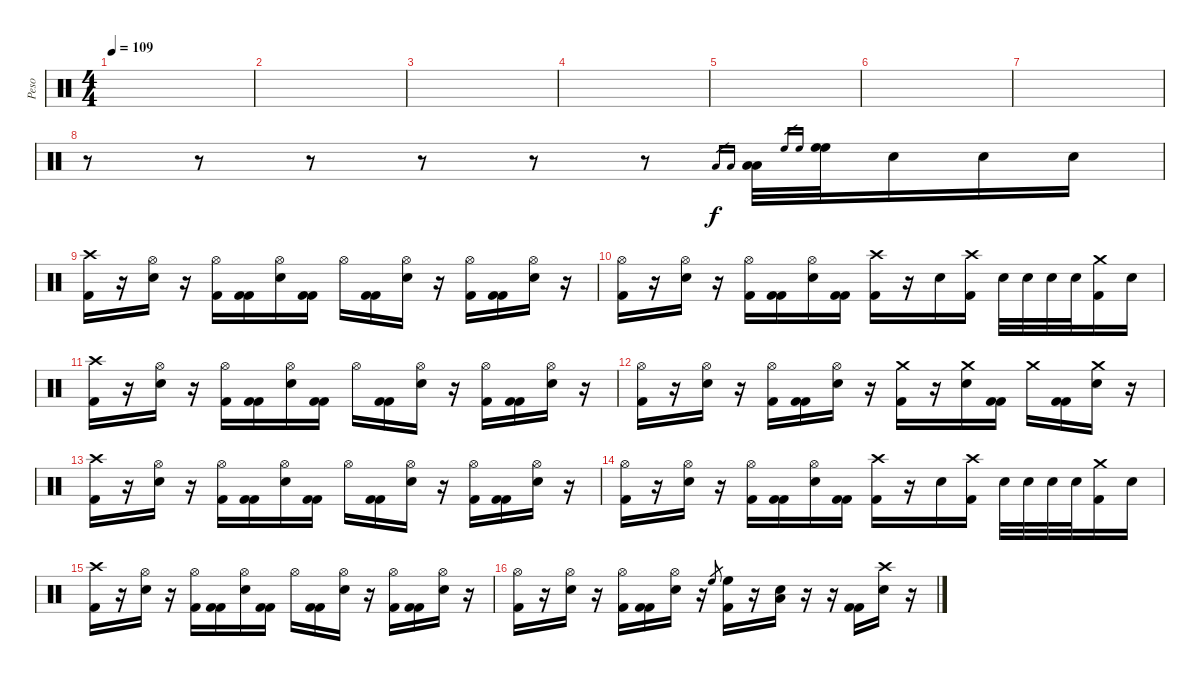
\track ("Peso" "Peso") {instrument percussion}
\staff {score}
\articulation defaults
\ts (4 4)
\tempo 109
\clef neutral
\ks c
|
|
|
|
|
|
|
r.8 r.8 r.8 r.8 r.8 r.8 "Low Floor Tom (hit)".16{gr} "Low Floor Tom (hit)".16{gr} ("Low Floor Tom (hit)" "Low Floor Tom (hit)").32 "High Floor Tom (hit)".16{gr} "High Floor Tom (hit)".16{gr} ("High Floor Tom (hit)" "High Floor Tom (hit)").32 "Snare (hit) 2".16 "Snare (hit) 2".16 "Snare (hit) 2".16 |
("Crash high (hit)" "Kick (hit) 2").16 r.16 ("Hi-Hat (open)" "Snare (hit) 2").16 r.16 ("Hi-Hat (open)" "Kick (hit) 2").16 ("Kick (hit) 2" "Kick (hit) 2").16 ("Hi-Hat (open)" "Snare (hit) 2").16 ("Kick (hit) 2" "Kick (hit) 2").16 "Hi-Hat (open)".16 ("Kick (hit) 2" "Kick (hit) 2").16 ("Hi-Hat (open)" "Snare (hit) 2").16 r.16 ("Hi-Hat (open)" "Kick (hit) 2").16 ("Kick (hit) 2" "Kick (hit) 2").16 ("Hi-Hat (open)" "Snare (hit) 2").16 r.16 |
("Hi-Hat (open)" "Kick (hit) 2").16 r.16 ("Hi-Hat (open)" "Snare (hit) 2").16 r.16 ("Hi-Hat (open)" "Kick (hit) 2").16 ("Kick (hit) 2" "Kick (hit) 2").16 ("Hi-Hat (open)" "Snare (hit) 2").16 ("Kick (hit) 2" "Kick (hit) 2").16 ("Crash high (hit)" "Kick (hit) 2").16 r.16 "Snare (hit) 2".16 ("Crash high (hit)" "Kick (hit) 2").16 "Snare (hit) 2".32 "Snare (hit) 2".32 "Snare (hit) 2".32 "Snare (hit) 2".32 ("Crash medium (hit)" "Kick (hit) 2").16 "Snare (hit) 2".16 |
("Crash high (hit)" "Kick (hit) 2").16 r.16 ("Hi-Hat (open)" "Snare (hit) 2").16 r.16 ("Hi-Hat (open)" "Kick (hit) 2").16 ("Kick (hit) 2" "Kick (hit) 2").16 ("Hi-Hat (open)" "Snare (hit) 2").16 ("Kick (hit) 2" "Kick (hit) 2").16 "Hi-Hat (open)".16 ("Kick (hit) 2" "Kick (hit) 2").16 ("Hi-Hat (open)" "Snare (hit) 2").16 r.16 ("Hi-Hat (open)" "Kick (hit) 2").16 ("Kick (hit) 2" "Kick (hit) 2").16 ("Hi-Hat (open)" "Snare (hit) 2").16 r.16 |
("Hi-Hat (open)" "Kick (hit) 2").16 r.16 ("Hi-Hat (open)" "Snare (hit) 2").16 r.16 ("Hi-Hat (open)" "Kick (hit) 2").16 ("Kick (hit) 2" "Kick (hit) 2").16 ("Hi-Hat (open)" "Snare (hit) 2").16 r.16 ("Crash medium (hit)" "Kick (hit) 2").16 r.16 ("Crash medium (hit)" "Snare (hit) 2").16 ("Kick (hit) 2" "Kick (hit) 2").16 "Crash medium (hit)".16 ("Kick (hit) 2" "Kick (hit) 2").16 ("Crash medium (hit)" "Snare (hit) 2").16 r.16 |
("Crash high (hit)" "Kick (hit) 2").16 r.16 ("Hi-Hat (open)" "Snare (hit) 2").16 r.16 ("Hi-Hat (open)" "Kick (hit) 2").16 ("Kick (hit) 2" "Kick (hit) 2").16 ("Hi-Hat (open)" "Snare (hit) 2").16 ("Kick (hit) 2" "Kick (hit) 2").16 "Hi-Hat (open)".16 ("Kick (hit) 2" "Kick (hit) 2").16 ("Hi-Hat (open)" "Snare (hit) 2").16 r.16 ("Hi-Hat (open)" "Kick (hit) 2").16 ("Kick (hit) 2" "Kick (hit) 2").16 ("Hi-Hat (open)" "Snare (hit) 2").16 r.16 |
("Hi-Hat (open)" "Kick (hit) 2").16 r.16 ("Hi-Hat (open)" "Snare (hit) 2").16 r.16 ("Hi-Hat (open)" "Kick (hit) 2").16 ("Kick (hit) 2" "Kick (hit) 2").16 ("Hi-Hat (open)" "Snare (hit) 2").16 ("Kick (hit) 2" "Kick (hit) 2").16 ("Crash high (hit)" "Kick (hit) 2").16 r.16 "Snare (hit) 2".16 ("Crash high (hit)" "Kick (hit) 2").16 "Snare (hit) 2".32 "Snare (hit) 2".32 "Snare (hit) 2".32 "Snare (hit) 2".32 ("Crash medium (hit)" "Kick (hit) 2").16 "Snare (hit) 2".16 |
("Crash high (hit)" "Kick (hit) 2").16 r.16 ("Hi-Hat (open)" "Snare (hit) 2").16 r.16 ("Hi-Hat (open)" "Kick (hit) 2").16 ("Kick (hit) 2" "Kick (hit) 2").16 ("Hi-Hat (open)" "Snare (hit) 2").16 ("Kick (hit) 2" "Kick (hit) 2").16 "Hi-Hat (open)".16 ("Kick (hit) 2" "Kick (hit) 2").16 ("Hi-Hat (open)" "Snare (hit) 2").16 r.16 ("Hi-Hat (open)" "Kick (hit) 2").16 ("Kick (hit) 2" "Kick (hit) 2").16 ("Hi-Hat (open)" "Snare (hit) 2").16 r.16 |
("Hi-Hat (open)" "Kick (hit) 2").16 r.16 ("Hi-Hat (open)" "Snare (hit) 2").16 r.16 ("Hi-Hat (open)" "Kick (hit) 2").16 ("Kick (hit) 2" "Kick (hit) 2").16 ("Hi-Hat (open)" "Snare (hit) 2").16 r.16 "High Floor Tom (hit)".8{gr} ("High Floor Tom (hit)" "Kick (hit) 2").16 r.16 ("Low Floor Tom (hit)" "Snare (hit) 2").16 r.16 r.16 ("Kick (hit) 2" "Kick (hit) 2").16 ("Crash high (hit)" "Snare (hit) 2").16 r.16
